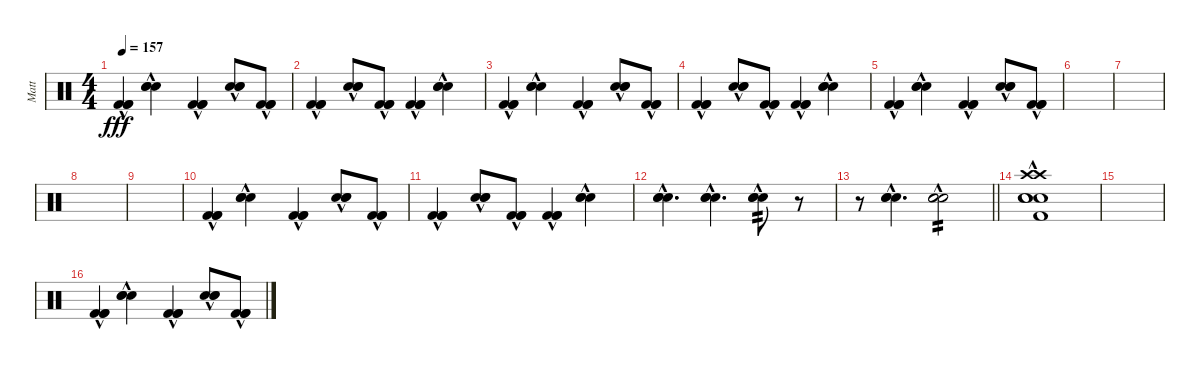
\track ("Matt" "Matt") {instrument percussion}
\staff {score}
\articulation defaults
\ts (4 4)
\tempo 157
\clef neutral
\ks c
("Kick (hit) 2"{hac} "Kick (hit) 2"{hac} "Kick (hit) 2"{hac}).4{dy fff} ("Snare (hit) 2"{hac} "Snare (hit) 2"{hac} "Snare (hit) 2"{hac}).4 ("Kick (hit) 2"{hac} "Kick (hit) 2"{hac} "Kick (hit) 2"{hac}).4 ("Snare (hit) 2"{hac} "Snare (hit) 2"{hac} "Snare (hit) 2"{hac}).8 ("Kick (hit) 2"{hac} "Kick (hit) 2"{hac} "Kick (hit) 2"{hac}).8 |
("Kick (hit) 2"{hac} "Kick (hit) 2"{hac} "Kick (hit) 2"{hac}).4 ("Snare (hit) 2"{hac} "Snare (hit) 2"{hac} "Snare (hit) 2"{hac}).8 ("Kick (hit) 2"{hac} "Kick (hit) 2"{hac} "Kick (hit) 2"{hac}).8 ("Kick (hit) 2"{hac} "Kick (hit) 2"{hac} "Kick (hit) 2"{hac}).4 ("Snare (hit) 2"{hac} "Snare (hit) 2"{hac} "Snare (hit) 2"{hac}).4 |
("Kick (hit) 2"{hac} "Kick (hit) 2"{hac} "Kick (hit) 2"{hac}).4 ("Snare (hit) 2"{hac} "Snare (hit) 2"{hac} "Snare (hit) 2"{hac}).4 ("Kick (hit) 2"{hac} "Kick (hit) 2"{hac} "Kick (hit) 2"{hac}).4 ("Snare (hit) 2"{hac} "Snare (hit) 2"{hac} "Snare (hit) 2"{hac}).8 ("Kick (hit) 2"{hac} "Kick (hit) 2"{hac} "Kick (hit) 2"{hac}).8 |
("Kick (hit) 2"{hac} "Kick (hit) 2"{hac} "Kick (hit) 2"{hac}).4 ("Snare (hit) 2"{hac} "Snare (hit) 2"{hac} "Snare (hit) 2"{hac}).8 ("Kick (hit) 2"{hac} "Kick (hit) 2"{hac} "Kick (hit) 2"{hac}).8 ("Kick (hit) 2"{hac} "Kick (hit) 2"{hac} "Kick (hit) 2"{hac}).4 ("Snare (hit) 2"{hac} "Snare (hit) 2"{hac} "Snare (hit) 2"{hac}).4 |
("Kick (hit) 2"{hac} "Kick (hit) 2"{hac} "Kick (hit) 2"{hac}).4 ("Snare (hit) 2"{hac} "Snare (hit) 2"{hac} "Snare (hit) 2"{hac}).4 ("Kick (hit) 2"{hac} "Kick (hit) 2"{hac} "Kick (hit) 2"{hac}).4 ("Snare (hit) 2"{hac} "Snare (hit) 2"{hac} "Snare (hit) 2"{hac}).8 ("Kick (hit) 2"{hac} "Kick (hit) 2"{hac} "Kick (hit) 2"{hac}).8 |
|
|
|
|
("Kick (hit) 2"{hac} "Kick (hit) 2"{hac} "Kick (hit) 2"{hac}).4 ("Snare (hit) 2"{hac} "Snare (hit) 2"{hac} "Snare (hit) 2"{hac}).4 ("Kick (hit) 2"{hac} "Kick (hit) 2"{hac} "Kick (hit) 2"{hac}).4 ("Snare (hit) 2"{hac} "Snare (hit) 2"{hac} "Snare (hit) 2"{hac}).8 ("Kick (hit) 2"{hac} "Kick (hit) 2"{hac} "Kick (hit) 2"{hac}).8 |
("Kick (hit) 2"{hac} "Kick (hit) 2"{hac} "Kick (hit) 2"{hac}).4 ("Snare (hit) 2"{hac} "Snare (hit) 2"{hac} "Snare (hit) 2"{hac}).8 ("Kick (hit) 2"{hac} "Kick (hit) 2"{hac} "Kick (hit) 2"{hac}).8 ("Kick (hit) 2"{hac} "Kick (hit) 2"{hac} "Kick (hit) 2"{hac}).4 ("Snare (hit) 2"{hac} "Snare (hit) 2"{hac} "Snare (hit) 2"{hac}).4 |
("Snare (hit) 2"{hac} "Snare (hit) 2"{hac} "Snare (hit) 2"{hac}).4{d} ("Snare (hit) 2"{hac} "Snare (hit) 2"{hac} "Snare (hit) 2"{hac}).4{d} ("Snare (hit) 2"{hac} "Snare (hit) 2"{hac} "Snare (hit) 2"{hac}).8{tp 2} r.8 |
\barLineRight lightlight
r.8 ("Snare (hit) 2"{hac} "Snare (hit) 2"{hac} "Snare (hit) 2"{hac}).4{d} ("Snare (hit) 2"{hac} "Snare (hit) 2"{hac} "Snare (hit) 2"{hac}).2{tp 2} |
("Crash high (hit)"{hac} "Crash high (hit)"{hac} "Kick (hit) 2"{hac} "Snare (hit) 2"{hac} "Snare (hit) 2"{hac} "Snare (hit) 2"{hac}).1 |
|
("Kick (hit) 2"{hac} "Kick (hit) 2"{hac} "Kick (hit) 2"{hac}).4 ("Snare (hit) 2"{hac} "Snare (hit) 2"{hac} "Snare (hit) 2"{hac}).4 ("Kick (hit) 2"{hac} "Kick (hit) 2"{hac} "Kick (hit) 2"{hac}).4 ("Snare (hit) 2"{hac} "Snare (hit) 2"{hac} "Snare (hit) 2"{hac}).8 ("Kick (hit) 2"{hac} "Kick (hit) 2"{hac} "Kick (hit) 2"{hac}).8
